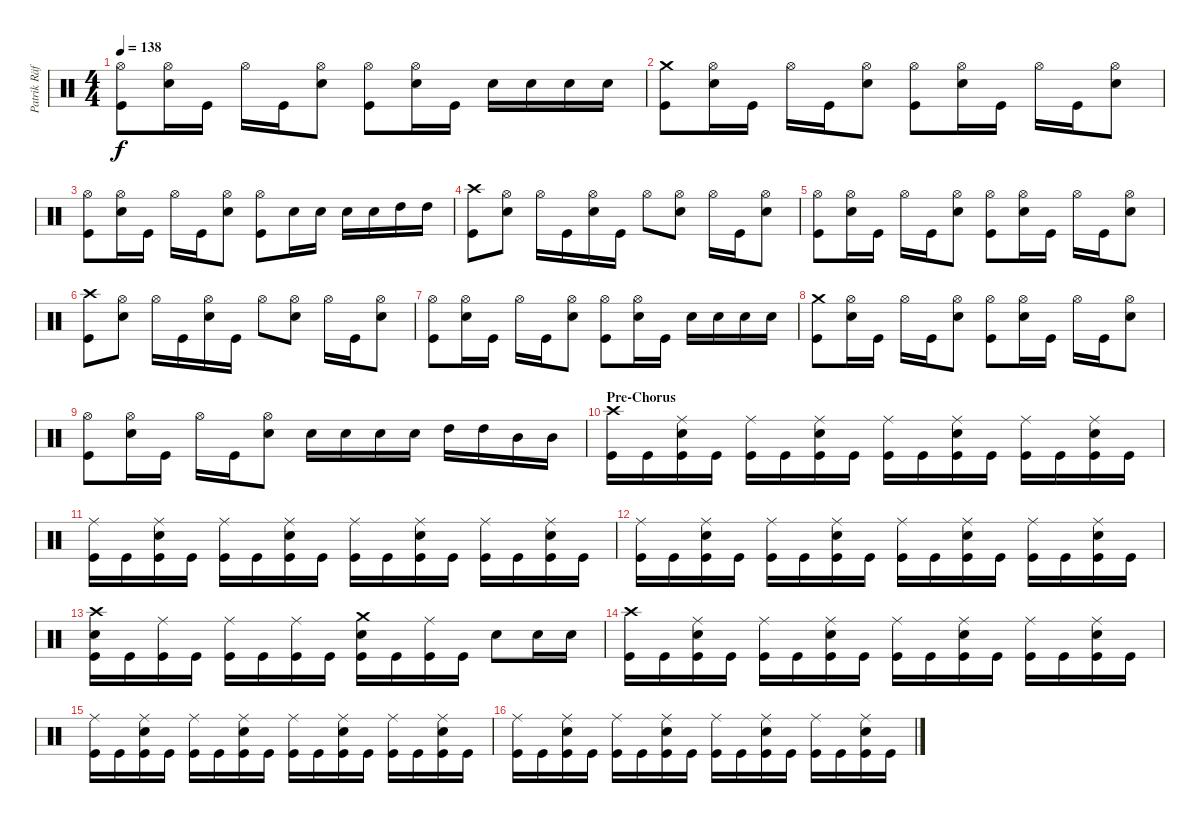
\track ("Patrik Räfling" "Patrik Räf") {instrument percussion}
\staff {score}
\articulation defaults
\ts (4 4)
\tempo 138
\clef neutral
\ks c
("Hi-Hat (open)" "Kick (hit)").8{dy f} ("Hi-Hat (open)" "Snare (hit) 2").16 "Kick (hit)".16 "Hi-Hat (open)".16 "Kick (hit)".16 ("Hi-Hat (open)" "Snare (hit) 2").8 ("Hi-Hat (open)" "Kick (hit)").8 ("Hi-Hat (open)" "Snare (hit) 2").16 "Kick (hit)".16 "Snare (hit) 2".16 "Snare (hit) 2".16 "Snare (hit) 2".16 "Snare (hit) 2".16 |
("Crash medium (hit)" "Kick (hit)").8 ("Hi-Hat (open)" "Snare (hit) 2").16 "Kick (hit)".16 "Hi-Hat (open)".16 "Kick (hit)".16 ("Hi-Hat (open)" "Snare (hit) 2").8 ("Hi-Hat (open)" "Kick (hit)").8 ("Hi-Hat (open)" "Snare (hit) 2").16 "Kick (hit)".16 "Hi-Hat (open)".16 "Kick (hit)".16 ("Hi-Hat (open)" "Snare (hit) 2").8 |
("Hi-Hat (open)" "Kick (hit)").8 ("Hi-Hat (open)" "Snare (hit) 2").16 "Kick (hit)".16 "Hi-Hat (open)".16 "Kick (hit)".16 ("Hi-Hat (open)" "Snare (hit) 2").8 ("Hi-Hat (open)" "Kick (hit)").8 "Snare (hit) 2".16 "Snare (hit) 2".16 "Snare (hit) 2".16 "Snare (hit) 2".16 "High Tom (hit)".16 "High Tom (hit)".16 |
("Crash high (hit)" "Kick (hit)").8 ("Hi-Hat (open)" "Snare (hit) 2").8 "Hi-Hat (open)".16 "Kick (hit)".16 ("Hi-Hat (open)" "Snare (hit) 2").16 "Kick (hit)".16 "Hi-Hat (open)".8 ("Hi-Hat (open)" "Snare (hit) 2").8 "Hi-Hat (open)".16 "Kick (hit)".16 ("Hi-Hat (open)" "Snare (hit) 2").8 |
("Hi-Hat (open)" "Kick (hit)").8 ("Hi-Hat (open)" "Snare (hit) 2").16 "Kick (hit)".16 "Hi-Hat (open)".16 "Kick (hit)".16 ("Hi-Hat (open)" "Snare (hit) 2").8 ("Hi-Hat (open)" "Kick (hit)").8 ("Hi-Hat (open)" "Snare (hit) 2").16 "Kick (hit)".16 "Hi-Hat (open)".16 "Kick (hit)".16 ("Hi-Hat (open)" "Snare (hit) 2").8 |
("Crash high (hit)" "Kick (hit)").8 ("Hi-Hat (open)" "Snare (hit) 2").8 "Hi-Hat (open)".16 "Kick (hit)".16 ("Hi-Hat (open)" "Snare (hit) 2").16 "Kick (hit)".16 "Hi-Hat (open)".8 ("Hi-Hat (open)" "Snare (hit) 2").8 "Hi-Hat (open)".16 "Kick (hit)".16 ("Hi-Hat (open)" "Snare (hit) 2").8 |
("Hi-Hat (open)" "Kick (hit)").8 ("Hi-Hat (open)" "Snare (hit) 2").16 "Kick (hit)".16 "Hi-Hat (open)".16 "Kick (hit)".16 ("Hi-Hat (open)" "Snare (hit) 2").8 ("Hi-Hat (open)" "Kick (hit)").8 ("Hi-Hat (open)" "Snare (hit) 2").16 "Kick (hit)".16 "Snare (hit) 2".16 "Snare (hit) 2".16 "Snare (hit) 2".16 "Snare (hit) 2".16 |
("Crash medium (hit)" "Kick (hit)").8 ("Hi-Hat (open)" "Snare (hit) 2").16 "Kick (hit)".16 "Hi-Hat (open)".16 "Kick (hit)".16 ("Hi-Hat (open)" "Snare (hit) 2").8 ("Hi-Hat (open)" "Kick (hit)").8 ("Hi-Hat (open)" "Snare (hit) 2").16 "Kick (hit)".16 "Hi-Hat (open)".16 "Kick (hit)".16 ("Hi-Hat (open)" "Snare (hit) 2").8 |
("Hi-Hat (open)" "Kick (hit)").8 ("Hi-Hat (open)" "Snare (hit) 2").16 "Kick (hit)".16 "Hi-Hat (open)".16 "Kick (hit)".16 ("Hi-Hat (open)" "Snare (hit) 2").8 "Snare (hit) 2".16 "Snare (hit) 2".16 "Snare (hit) 2".16 "Snare (hit) 2".16 "High Tom (hit)".16 "High Tom (hit)".16 "Mid Tom (hit)".16 "Mid Tom (hit)".16 |
\section ("" "Pre-Chorus")
("Crash high (hit)" "Kick (hit)").16 "Kick (hit)".16 ("Ride (middle)" "Snare (hit) 2" "Kick (hit)").16 "Kick (hit)".16 ("Ride (middle)" "Kick (hit)").16 "Kick (hit)".16 ("Ride (middle)" "Snare (hit) 2" "Kick (hit)").16 "Kick (hit)".16 ("Ride (middle)" "Kick (hit)").16 "Kick (hit)".16 ("Ride (middle)" "Snare (hit) 2" "Kick (hit)").16 "Kick (hit)".16 ("Ride (middle)" "Kick (hit)").16 "Kick (hit)".16 ("Ride (middle)" "Snare (hit) 2" "Kick (hit)").16 "Kick (hit)".16 |
("Ride (middle)" "Kick (hit)").16 "Kick (hit)".16 ("Ride (middle)" "Snare (hit) 2" "Kick (hit)").16 "Kick (hit)".16 ("Ride (middle)" "Kick (hit)").16 "Kick (hit)".16 ("Ride (middle)" "Snare (hit) 2" "Kick (hit)").16 "Kick (hit)".16 ("Ride (middle)" "Kick (hit)").16 "Kick (hit)".16 ("Ride (middle)" "Snare (hit) 2" "Kick (hit)").16 "Kick (hit)".16 ("Ride (middle)" "Kick (hit)").16 "Kick (hit)".16 ("Ride (middle)" "Snare (hit) 2" "Kick (hit)").16 "Kick (hit)".16 |
("Ride (middle)" "Kick (hit)").16 "Kick (hit)".16 ("Ride (middle)" "Snare (hit) 2" "Kick (hit)").16 "Kick (hit)".16 ("Ride (middle)" "Kick (hit)").16 "Kick (hit)".16 ("Ride (middle)" "Snare (hit) 2" "Kick (hit)").16 "Kick (hit)".16 ("Ride (middle)" "Kick (hit)").16 "Kick (hit)".16 ("Ride (middle)" "Snare (hit) 2" "Kick (hit)").16 "Kick (hit)".16 ("Ride (middle)" "Kick (hit)").16 "Kick (hit)".16 ("Ride (middle)" "Snare (hit) 2" "Kick (hit)").16 "Kick (hit)".16 |
("Crash high (hit)" "Snare (hit) 2" "Kick (hit)").16 "Kick (hit)".16 ("Ride (middle)" "Kick (hit)").16 "Kick (hit)".16 ("Ride (middle)" "Kick (hit)").16 "Kick (hit)".16 ("Ride (middle)" "Kick (hit)").16 "Kick (hit)".16 ("Crash medium (hit)" "Snare (hit) 2" "Kick (hit)").16 "Kick (hit)".16 ("Ride (middle)" "Kick (hit)").16 "Kick (hit)".16 "Snare (hit) 2".8 "Snare (hit) 2".16 "Snare (hit) 2".16 |
("Crash high (hit)" "Kick (hit)").16 "Kick (hit)".16 ("Ride (middle)" "Snare (hit) 2" "Kick (hit)").16 "Kick (hit)".16 ("Ride (middle)" "Kick (hit)").16 "Kick (hit)".16 ("Ride (middle)" "Snare (hit) 2" "Kick (hit)").16 "Kick (hit)".16 ("Ride (middle)" "Kick (hit)").16 "Kick (hit)".16 ("Ride (middle)" "Snare (hit) 2" "Kick (hit)").16 "Kick (hit)".16 ("Ride (middle)" "Kick (hit)").16 "Kick (hit)".16 ("Ride (middle)" "Snare (hit) 2" "Kick (hit)").16 "Kick (hit)".16 |
("Ride (middle)" "Kick (hit)").16 "Kick (hit)".16 ("Ride (middle)" "Snare (hit) 2" "Kick (hit)").16 "Kick (hit)".16 ("Ride (middle)" "Kick (hit)").16 "Kick (hit)".16 ("Ride (middle)" "Snare (hit) 2" "Kick (hit)").16 "Kick (hit)".16 ("Ride (middle)" "Kick (hit)").16 "Kick (hit)".16 ("Ride (middle)" "Snare (hit) 2" "Kick (hit)").16 "Kick (hit)".16 ("Ride (middle)" "Kick (hit)").16 "Kick (hit)".16 ("Ride (middle)" "Snare (hit) 2" "Kick (hit)").16 "Kick (hit)".16 |
("Ride (middle)" "Kick (hit)").16 "Kick (hit)".16 ("Ride (middle)" "Snare (hit) 2" "Kick (hit)").16 "Kick (hit)".16 ("Ride (middle)" "Kick (hit)").16 "Kick (hit)".16 ("Ride (middle)" "Snare (hit) 2" "Kick (hit)").16 "Kick (hit)".16 ("Ride (middle)" "Kick (hit)").16 "Kick (hit)".16 ("Ride (middle)" "Snare (hit) 2" "Kick (hit)").16 "Kick (hit)".16 ("Ride (middle)" "Kick (hit)").16 "Kick (hit)".16 ("Ride (middle)" "Snare (hit) 2" "Kick (hit)").16 "Kick (hit)".16
